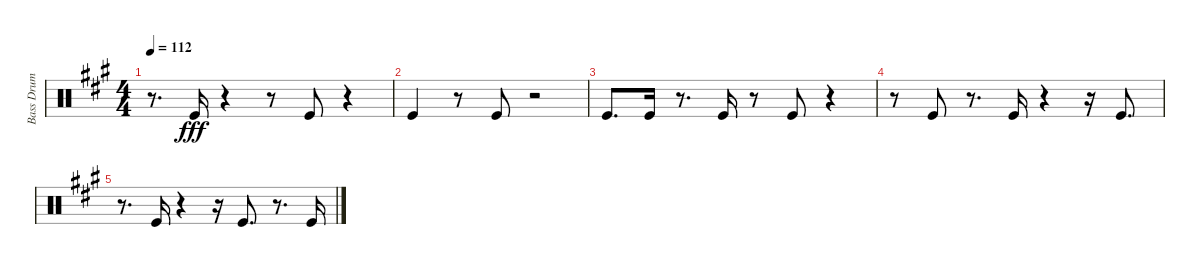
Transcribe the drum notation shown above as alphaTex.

\track ("Bass Drum" "Bass Drum") {instrument percussion}
\staff {score}
\articulation defaults
\ts (4 4)
\tempo 112
\clef neutral
\ks a
r.8{d dy fff} "Kick (hit)".16 r.4 r.8 "Kick (hit)".8 r.4 |
"Kick (hit)".4 r.8 "Kick (hit)".8 r.2 |
"Kick (hit)".8{d} "Kick (hit)".16 r.8{d} "Kick (hit)".16 r.8 "Kick (hit)".8 r.4 |
r.8 "Kick (hit)".8 r.8{d} "Kick (hit)".16 r.4 r.16 "Kick (hit)".8{d} |
r.8{d} "Kick (hit)".16 r.4 r.16 "Kick (hit)".8{d} r.8{d} "Kick (hit)".16
